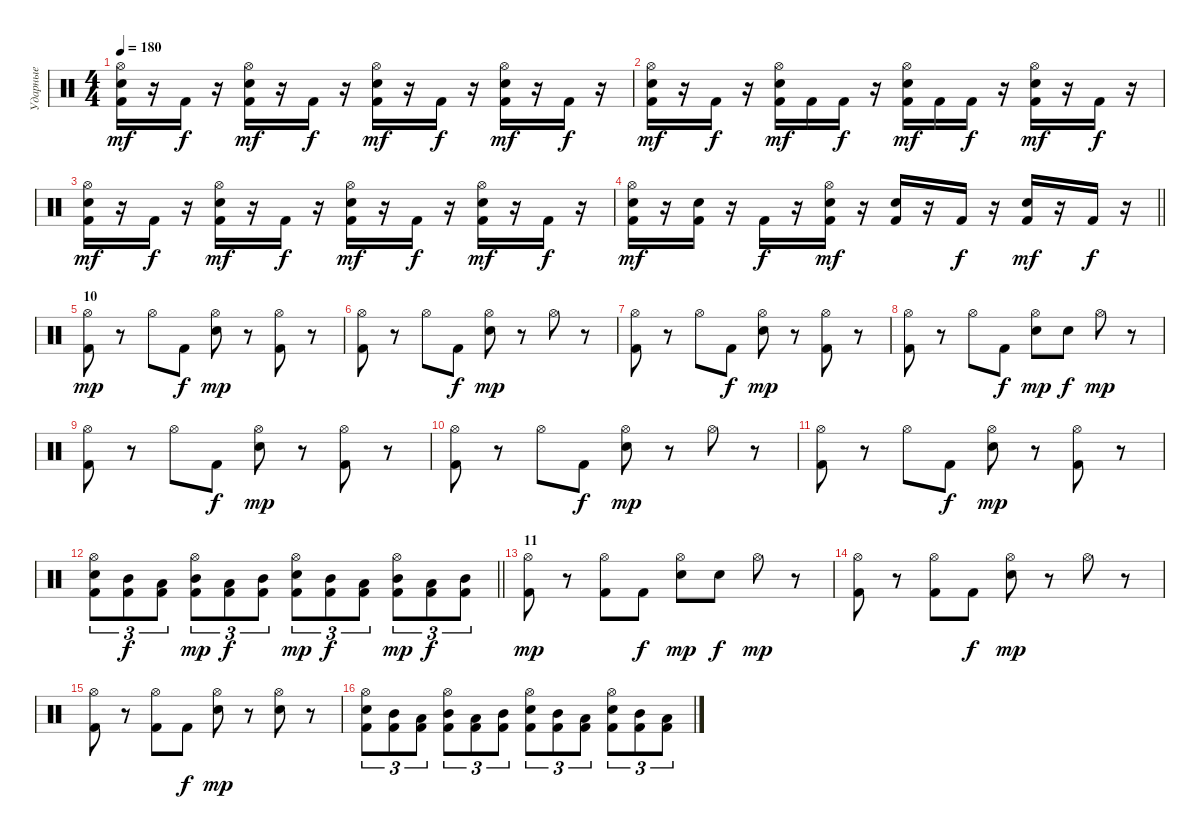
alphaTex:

\track ("Ударные" "Ударные") {instrument percussion}
\staff {score}
\articulation defaults
\ts (4 4)
\tempo 180
\clef neutral
\ks c
("Hi-Hat (open)" "Snare (hit) 2" "Kick (hit) 2").16{dy mf} r.16 "Kick (hit) 2".16{dy f} r.16 ("Hi-Hat (open)" "Snare (hit) 2" "Kick (hit) 2").16{dy mf} r.16 "Kick (hit) 2".16{dy f} r.16 ("Hi-Hat (open)" "Snare (hit) 2" "Kick (hit) 2").16{dy mf} r.16 "Kick (hit) 2".16{dy f} r.16 ("Hi-Hat (open)" "Snare (hit) 2" "Kick (hit) 2").16{dy mf} r.16 "Kick (hit) 2".16{dy f} r.16 |
("Hi-Hat (open)" "Snare (hit) 2" "Kick (hit) 2").16{dy mf} r.16 "Kick (hit) 2".16{dy f} r.16 ("Hi-Hat (open)" "Snare (hit) 2" "Kick (hit) 2").16{dy mf} "Kick (hit) 2".16 "Kick (hit) 2".16{dy f} r.16 ("Hi-Hat (open)" "Snare (hit) 2" "Kick (hit) 2").16{dy mf} "Kick (hit) 2".16 "Kick (hit) 2".16{dy f} r.16 ("Hi-Hat (open)" "Snare (hit) 2" "Kick (hit) 2").16{dy mf} r.16 "Kick (hit) 2".16{dy f} r.16 |
("Hi-Hat (open)" "Snare (hit) 2" "Kick (hit) 2").16{dy mf} r.16 "Kick (hit) 2".16{dy f} r.16 ("Hi-Hat (open)" "Snare (hit) 2" "Kick (hit) 2").16{dy mf} r.16 "Kick (hit) 2".16{dy f} r.16 ("Hi-Hat (open)" "Snare (hit) 2" "Kick (hit) 2").16{dy mf} r.16 "Kick (hit) 2".16{dy f} r.16 ("Hi-Hat (open)" "Snare (hit) 2" "Kick (hit) 2").16{dy mf} r.16 "Kick (hit) 2".16{dy f} r.16 |
\barLineRight lightlight
("Hi-Hat (open)" "Snare (hit) 2" "Kick (hit) 2").16{dy mf} r.16 ("Snare (hit) 2" "Kick (hit) 2").16 r.16 "Kick (hit) 2".16{dy f} r.16 ("Hi-Hat (open)" "Snare (hit) 2" "Kick (hit) 2").16{dy mf} r.16 ("Snare (hit) 2" "Kick (hit) 2").16 r.16 "Kick (hit) 2".16{dy f} r.16 ("Snare (hit) 2" "Kick (hit) 2").16{dy mf} r.16 "Kick (hit) 2".16{dy f} r.16 |
\section ("" "10")
("Hi-Hat (open)" "Kick (hit) 2").8{dy mp} r.8 "Hi-Hat (open)".8 "Kick (hit) 2".8{dy f} ("Hi-Hat (open)" "Snare (hit) 2").8{dy mp} r.8 ("Hi-Hat (open)" "Kick (hit) 2").8 r.8 |
("Hi-Hat (open)" "Kick (hit) 2").8 r.8 "Hi-Hat (open)".8 "Kick (hit) 2".8{dy f} ("Hi-Hat (open)" "Snare (hit) 2").8{dy mp} r.8 "Hi-Hat (open)".8 r.8 |
("Hi-Hat (open)" "Kick (hit) 2").8 r.8 "Hi-Hat (open)".8 "Kick (hit) 2".8{dy f} ("Hi-Hat (open)" "Snare (hit) 2").8{dy mp} r.8 ("Hi-Hat (open)" "Kick (hit) 2").8 r.8 |
("Hi-Hat (open)" "Kick (hit) 2").8 r.8 "Hi-Hat (open)".8 "Kick (hit) 2".8{dy f} ("Hi-Hat (open)" "Snare (hit) 2").8{dy mp} "Snare (hit) 2".8{dy f} "Hi-Hat (open)".8{dy mp} r.8 |
("Hi-Hat (open)" "Kick (hit) 2").8 r.8 "Hi-Hat (open)".8 "Kick (hit) 2".8{dy f} ("Hi-Hat (open)" "Snare (hit) 2").8{dy mp} r.8 ("Hi-Hat (open)" "Kick (hit) 2").8 r.8 |
("Hi-Hat (open)" "Kick (hit) 2").8 r.8 "Hi-Hat (open)".8 "Kick (hit) 2".8{dy f} ("Hi-Hat (open)" "Snare (hit) 2").8{dy mp} r.8 "Hi-Hat (open)".8 r.8 |
("Hi-Hat (open)" "Kick (hit) 2").8 r.8 "Hi-Hat (open)".8 "Kick (hit) 2".8{dy f} ("Hi-Hat (open)" "Snare (hit) 2").8{dy mp} r.8 ("Hi-Hat (open)" "Kick (hit) 2").8 r.8 |
\barLineRight lightlight
("Snare (hit) 2" "Hi-Hat (open)" "Kick (hit) 2").8{tu (3 2)} ("Mid Tom (hit)" "Kick (hit) 2").8{tu (3 2) dy f} ("Low Tom (hit)" "Kick (hit) 2").8{tu (3 2)} ("Hi-Hat (open)" "Mid Tom (hit)" "Kick (hit) 2").8{tu (3 2) dy mp} ("Low Tom (hit)" "Kick (hit) 2").8{tu (3 2) dy f} ("Mid Tom (hit)" "Kick (hit) 2").8{tu (3 2)} ("Hi-Hat (open)" "Snare (hit) 2" "Kick (hit) 2").8{tu (3 2) dy mp} ("Mid Tom (hit)" "Kick (hit) 2").8{tu (3 2) dy f} ("Low Tom (hit)" "Kick (hit) 2").8{tu (3 2)} ("Hi-Hat (open)" "Mid Tom (hit)" "Kick (hit) 2").8{tu (3 2) dy mp} ("Low Tom (hit)" "Kick (hit) 2").8{tu (3 2) dy f} ("Mid Tom (hit)" "Kick (hit) 2").8{tu (3 2)} |
\section ("" "11")
("Hi-Hat (open)" "Kick (hit) 2").8{dy mp} r.8 ("Hi-Hat (open)" "Kick (hit) 2").8 "Kick (hit) 2".8{dy f} ("Hi-Hat (open)" "Snare (hit) 2").8{dy mp} "Snare (hit) 2".8{dy f} "Hi-Hat (open)".8{dy mp} r.8 |
("Hi-Hat (open)" "Kick (hit) 2").8 r.8 ("Hi-Hat (open)" "Kick (hit) 2").8 "Kick (hit) 2".8{dy f} ("Hi-Hat (open)" "Snare (hit) 2").8{dy mp} r.8 "Hi-Hat (open)".8 r.8 |
("Hi-Hat (open)" "Kick (hit) 2").8 r.8 ("Hi-Hat (open)" "Kick (hit) 2").8 "Kick (hit) 2".8{dy f} ("Hi-Hat (open)" "Snare (hit) 2").8{dy mp} r.8 ("Hi-Hat (open)" "Snare (hit) 2").8 r.8 |
("Snare (hit) 2" "Hi-Hat (open)" "Kick (hit) 2").8{tu (3 2)} ("Mid Tom (hit)" "Kick (hit) 2").8{tu (3 2)} ("Low Tom (hit)" "Kick (hit) 2").8{tu (3 2)} ("Hi-Hat (open)" "Mid Tom (hit)" "Kick (hit) 2").8{tu (3 2)} ("Low Tom (hit)" "Kick (hit) 2").8{tu (3 2)} ("Mid Tom (hit)" "Kick (hit) 2").8{tu (3 2)} ("Snare (hit) 2" "Hi-Hat (open)" "Kick (hit) 2").8{tu (3 2)} ("Mid Tom (hit)" "Kick (hit) 2").8{tu (3 2)} ("Low Tom (hit)" "Kick (hit) 2").8{tu (3 2)} ("Hi-Hat (open)" "Snare (hit) 2" "Kick (hit) 2").8{tu (3 2)} ("Mid Tom (hit)" "Kick (hit) 2").8{tu (3 2)} ("Low Tom (hit)" "Kick (hit) 2").8{tu (3 2)}
